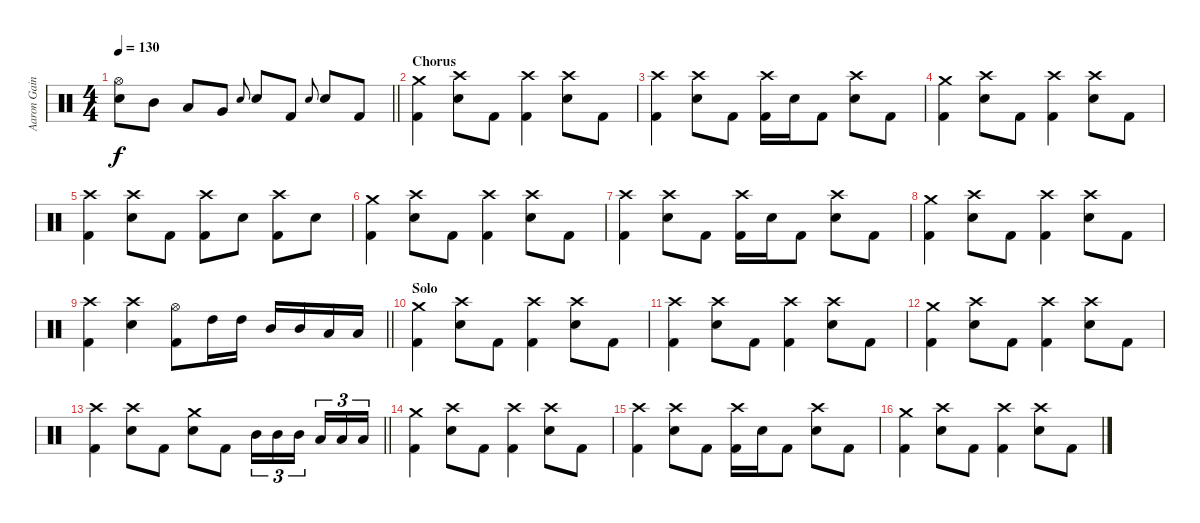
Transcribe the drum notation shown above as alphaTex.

\track ("Aaron Gainer - Drums" "Aaron Gain") {instrument percussion}
\staff {score}
\articulation defaults
\ts (4 4)
\tempo 130
\clef neutral
\barLineRight lightlight
\ks c
("Hi-Hat (open)" "Snare (hit) 2").8{dy f} "Mid Tom (hit)".8 "Low Tom (hit)".8 "Very Low Tom (hit)".8 "Snare (hit) 2".8{gr onbeat} "Snare (hit) 2".8 "Kick (hit) 2".8 "Snare (hit) 2".8{gr onbeat} "Snare (hit) 2".8 "Kick (hit) 2".8 |
\section ("" "Chorus")
("Crash medium (hit)" "Kick (hit) 2").4 ("Crash high (hit)" "Snare (hit) 2").8 "Kick (hit) 2".8 ("Crash high (hit)" "Kick (hit) 2").4 ("Crash high (hit)" "Snare (hit) 2").8 "Kick (hit) 2".8 |
("Crash high (hit)" "Kick (hit) 2").4 ("Crash high (hit)" "Snare (hit) 2").8 "Kick (hit) 2".8 ("Crash high (hit)" "Kick (hit) 2").16 "Snare (hit) 2".16 "Kick (hit) 2".8 ("Crash high (hit)" "Snare (hit) 2").8 "Kick (hit) 2".8 |
("Crash medium (hit)" "Kick (hit) 2").4 ("Crash high (hit)" "Snare (hit) 2").8 "Kick (hit) 2".8 ("Crash high (hit)" "Kick (hit) 2").4 ("Crash high (hit)" "Snare (hit) 2").8 "Kick (hit) 2".8 |
("Crash high (hit)" "Kick (hit) 2").4 ("Crash high (hit)" "Snare (hit) 2").8 "Kick (hit) 2".8 ("Crash high (hit)" "Kick (hit) 2").8 "Snare (hit) 2".8 ("Crash high (hit)" "Kick (hit) 2").8 "Snare (hit) 2".8 |
("Crash medium (hit)" "Kick (hit) 2").4 ("Crash high (hit)" "Snare (hit) 2").8 "Kick (hit) 2".8 ("Crash high (hit)" "Kick (hit) 2").4 ("Crash high (hit)" "Snare (hit) 2").8 "Kick (hit) 2".8 |
("Crash high (hit)" "Kick (hit) 2").4 ("Crash high (hit)" "Snare (hit) 2").8 "Kick (hit) 2".8 ("Crash high (hit)" "Kick (hit) 2").16 "Snare (hit) 2".16 "Kick (hit) 2".8 ("Crash high (hit)" "Snare (hit) 2").8 "Kick (hit) 2".8 |
("Crash medium (hit)" "Kick (hit) 2").4 ("Crash high (hit)" "Snare (hit) 2").8 "Kick (hit) 2".8 ("Crash high (hit)" "Kick (hit) 2").4 ("Crash high (hit)" "Snare (hit) 2").8 "Kick (hit) 2".8 |
\barLineRight lightlight
("Crash high (hit)" "Kick (hit) 2").4 ("Crash high (hit)" "Snare (hit) 2").4 ("Hi-Hat (open)" "Kick (hit) 2").8 "High Tom (hit)".16 "High Tom (hit)".16 "Mid Tom (hit)".16 "Mid Tom (hit)".16 "Low Tom (hit)".16 "Low Tom (hit)".16 |
\section ("" "Solo")
("Crash medium (hit)" "Kick (hit) 2").4 ("Crash high (hit)" "Snare (hit) 2").8 "Kick (hit) 2".8 ("Crash high (hit)" "Kick (hit) 2").4 ("Crash high (hit)" "Snare (hit) 2").8 "Kick (hit) 2".8 |
("Crash high (hit)" "Kick (hit) 2").4 ("Crash high (hit)" "Snare (hit) 2").8 "Kick (hit) 2".8 ("Crash high (hit)" "Kick (hit) 2").4 ("Crash high (hit)" "Snare (hit) 2").8 "Kick (hit) 2".8 |
("Crash medium (hit)" "Kick (hit) 2").4 ("Crash high (hit)" "Snare (hit) 2").8 "Kick (hit) 2".8 ("Crash high (hit)" "Kick (hit) 2").4 ("Crash high (hit)" "Snare (hit) 2").8 "Kick (hit) 2".8 |
\barLineRight lightlight
("Crash high (hit)" "Kick (hit) 2").4 ("Crash high (hit)" "Snare (hit) 2").8 "Kick (hit) 2".8 ("Crash medium (hit)" "Electric Snare (hit)").8 "Kick (hit) 2".8 "Mid Tom (hit)".16{tu (3 2)} "Mid Tom (hit)".16{tu (3 2)} "Mid Tom (hit)".16{tu (3 2) beam splitsecondary} "Low Tom (hit)".16{tu (3 2)} "Low Tom (hit)".16{tu (3 2)} "Low Tom (hit)".16{tu (3 2)} |
("Crash medium (hit)" "Kick (hit) 2").4 ("Crash high (hit)" "Snare (hit) 2").8 "Kick (hit) 2".8 ("Crash high (hit)" "Kick (hit) 2").4 ("Crash high (hit)" "Snare (hit) 2").8 "Kick (hit) 2".8 |
("Crash high (hit)" "Kick (hit) 2").4 ("Crash high (hit)" "Snare (hit) 2").8 "Kick (hit) 2".8 ("Crash high (hit)" "Kick (hit) 2").16 "Snare (hit) 2".16 "Kick (hit) 2".8 ("Crash high (hit)" "Snare (hit) 2").8 "Kick (hit) 2".8 |
("Crash medium (hit)" "Kick (hit) 2").4 ("Crash high (hit)" "Snare (hit) 2").8 "Kick (hit) 2".8 ("Crash high (hit)" "Kick (hit) 2").4 ("Crash high (hit)" "Snare (hit) 2").8 "Kick (hit) 2".8
